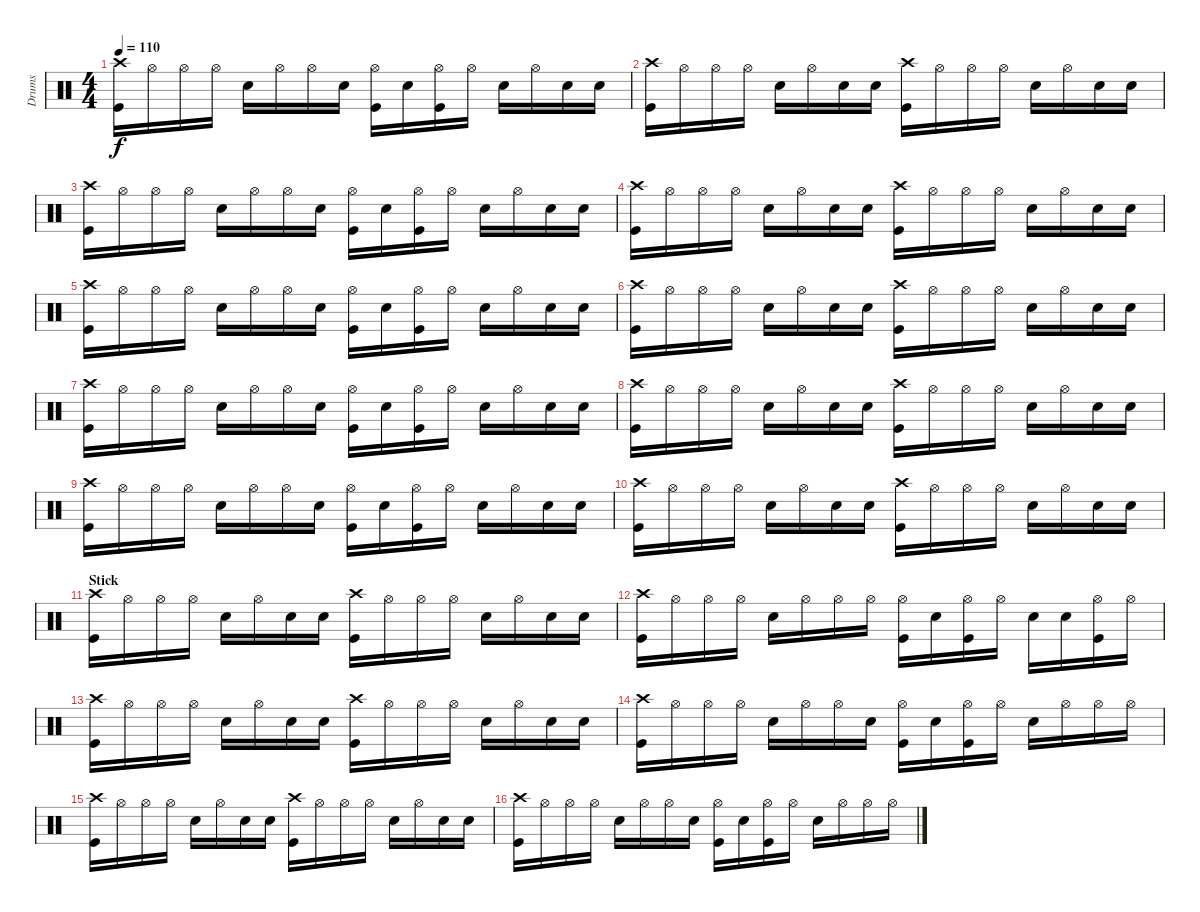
\track ("Drums" "Drums") {instrument percussion}
\staff {score}
\articulation defaults
\ts (4 4)
\tempo 110
\clef neutral
\ks c
("Crash high (hit)" "Kick (hit)").16{dy f} "Hi-Hat (open)".16 "Hi-Hat (open)".16 "Hi-Hat (open)".16 "Snare (hit) 2".16 "Hi-Hat (open)".16 "Hi-Hat (open)".16 "Snare (hit) 2".16 ("Hi-Hat (open)" "Kick (hit)").16 "Snare (hit) 2".16 ("Hi-Hat (open)" "Kick (hit)").16 "Hi-Hat (open)".16 "Snare (hit) 2".16 "Hi-Hat (open)".16 "Snare (hit) 2".16 "Snare (hit) 2".16 |
("Crash high (hit)" "Kick (hit)").16 "Hi-Hat (open)".16 "Hi-Hat (open)".16 "Hi-Hat (open)".16 "Snare (hit) 2".16 "Hi-Hat (open)".16 "Snare (hit) 2".16 "Snare (hit) 2".16 ("Crash high (hit)" "Kick (hit)").16 "Hi-Hat (open)".16 "Hi-Hat (open)".16 "Hi-Hat (open)".16 "Snare (hit) 2".16 "Hi-Hat (open)".16 "Snare (hit) 2".16 "Snare (hit) 2".16 |
("Crash high (hit)" "Kick (hit)").16 "Hi-Hat (open)".16 "Hi-Hat (open)".16 "Hi-Hat (open)".16 "Snare (hit) 2".16 "Hi-Hat (open)".16 "Hi-Hat (open)".16 "Snare (hit) 2".16 ("Hi-Hat (open)" "Kick (hit)").16 "Snare (hit) 2".16 ("Hi-Hat (open)" "Kick (hit)").16 "Hi-Hat (open)".16 "Snare (hit) 2".16 "Hi-Hat (open)".16 "Snare (hit) 2".16 "Snare (hit) 2".16 |
("Crash high (hit)" "Kick (hit)").16 "Hi-Hat (open)".16 "Hi-Hat (open)".16 "Hi-Hat (open)".16 "Snare (hit) 2".16 "Hi-Hat (open)".16 "Snare (hit) 2".16 "Snare (hit) 2".16 ("Crash high (hit)" "Kick (hit)").16 "Hi-Hat (open)".16 "Hi-Hat (open)".16 "Hi-Hat (open)".16 "Snare (hit) 2".16 "Hi-Hat (open)".16 "Snare (hit) 2".16 "Snare (hit) 2".16 |
("Crash high (hit)" "Kick (hit)").16 "Hi-Hat (open)".16 "Hi-Hat (open)".16 "Hi-Hat (open)".16 "Snare (hit) 2".16 "Hi-Hat (open)".16 "Hi-Hat (open)".16 "Snare (hit) 2".16 ("Hi-Hat (open)" "Kick (hit)").16 "Snare (hit) 2".16 ("Hi-Hat (open)" "Kick (hit)").16 "Hi-Hat (open)".16 "Snare (hit) 2".16 "Hi-Hat (open)".16 "Snare (hit) 2".16 "Snare (hit) 2".16 |
("Crash high (hit)" "Kick (hit)").16 "Hi-Hat (open)".16 "Hi-Hat (open)".16 "Hi-Hat (open)".16 "Snare (hit) 2".16 "Hi-Hat (open)".16 "Snare (hit) 2".16 "Snare (hit) 2".16 ("Crash high (hit)" "Kick (hit)").16 "Hi-Hat (open)".16 "Hi-Hat (open)".16 "Hi-Hat (open)".16 "Snare (hit) 2".16 "Hi-Hat (open)".16 "Snare (hit) 2".16 "Snare (hit) 2".16 |
("Crash high (hit)" "Kick (hit)").16 "Hi-Hat (open)".16 "Hi-Hat (open)".16 "Hi-Hat (open)".16 "Snare (hit) 2".16 "Hi-Hat (open)".16 "Hi-Hat (open)".16 "Snare (hit) 2".16 ("Hi-Hat (open)" "Kick (hit)").16 "Snare (hit) 2".16 ("Hi-Hat (open)" "Kick (hit)").16 "Hi-Hat (open)".16 "Snare (hit) 2".16 "Hi-Hat (open)".16 "Snare (hit) 2".16 "Snare (hit) 2".16 |
("Crash high (hit)" "Kick (hit)").16 "Hi-Hat (open)".16 "Hi-Hat (open)".16 "Hi-Hat (open)".16 "Snare (hit) 2".16 "Hi-Hat (open)".16 "Snare (hit) 2".16 "Snare (hit) 2".16 ("Crash high (hit)" "Kick (hit)").16 "Hi-Hat (open)".16 "Hi-Hat (open)".16 "Hi-Hat (open)".16 "Snare (hit) 2".16 "Hi-Hat (open)".16 "Snare (hit) 2".16 "Snare (hit) 2".16 |
("Crash high (hit)" "Kick (hit)").16 "Hi-Hat (open)".16 "Hi-Hat (open)".16 "Hi-Hat (open)".16 "Snare (hit) 2".16 "Hi-Hat (open)".16 "Hi-Hat (open)".16 "Snare (hit) 2".16 ("Hi-Hat (open)" "Kick (hit)").16 "Snare (hit) 2".16 ("Hi-Hat (open)" "Kick (hit)").16 "Hi-Hat (open)".16 "Snare (hit) 2".16 "Hi-Hat (open)".16 "Snare (hit) 2".16 "Snare (hit) 2".16 |
("Crash high (hit)" "Kick (hit)").16 "Hi-Hat (open)".16 "Hi-Hat (open)".16 "Hi-Hat (open)".16 "Snare (hit) 2".16 "Hi-Hat (open)".16 "Snare (hit) 2".16 "Snare (hit) 2".16 ("Crash high (hit)" "Kick (hit)").16 "Hi-Hat (open)".16 "Hi-Hat (open)".16 "Hi-Hat (open)".16 "Snare (hit) 2".16 "Hi-Hat (open)".16 "Snare (hit) 2".16 "Snare (hit) 2".16 |
\section ("" "Stick")
("Crash high (hit)" "Kick (hit)").16 "Hi-Hat (open)".16 "Hi-Hat (open)".16 "Hi-Hat (open)".16 "Snare (hit) 2".16 "Hi-Hat (open)".16 "Snare (hit) 2".16 "Snare (hit) 2".16 ("Crash high (hit)" "Kick (hit)").16 "Hi-Hat (open)".16 "Hi-Hat (open)".16 "Hi-Hat (open)".16 "Snare (hit) 2".16 "Hi-Hat (open)".16 "Snare (hit) 2".16 "Snare (hit) 2".16 |
("Crash high (hit)" "Kick (hit)").16 "Hi-Hat (open)".16 "Hi-Hat (open)".16 "Hi-Hat (open)".16 "Snare (hit) 2".16 "Hi-Hat (open)".16 "Hi-Hat (open)".16 "Hi-Hat (open)".16 ("Hi-Hat (open)" "Kick (hit)").16 "Snare (hit) 2".16 ("Hi-Hat (open)" "Kick (hit)").16 "Hi-Hat (open)".16 "Snare (hit) 2".16 "Snare (hit) 2".16 ("Hi-Hat (open)" "Kick (hit)").16 "Hi-Hat (open)".16 |
("Crash high (hit)" "Kick (hit)").16 "Hi-Hat (open)".16 "Hi-Hat (open)".16 "Hi-Hat (open)".16 "Snare (hit) 2".16 "Hi-Hat (open)".16 "Snare (hit) 2".16 "Snare (hit) 2".16 ("Crash high (hit)" "Kick (hit)").16 "Hi-Hat (open)".16 "Hi-Hat (open)".16 "Hi-Hat (open)".16 "Snare (hit) 2".16 "Hi-Hat (open)".16 "Snare (hit) 2".16 "Snare (hit) 2".16 |
("Crash high (hit)" "Kick (hit)").16 "Hi-Hat (open)".16 "Hi-Hat (open)".16 "Hi-Hat (open)".16 "Snare (hit) 2".16 "Hi-Hat (open)".16 "Hi-Hat (open)".16 "Snare (hit) 2".16 ("Hi-Hat (open)" "Kick (hit)").16 "Snare (hit) 2".16 ("Hi-Hat (open)" "Kick (hit)").16 "Hi-Hat (open)".16 "Snare (hit) 2".16 "Hi-Hat (open)".16 "Hi-Hat (open)".16 "Hi-Hat (open)".16 |
("Crash high (hit)" "Kick (hit)").16 "Hi-Hat (open)".16 "Hi-Hat (open)".16 "Hi-Hat (open)".16 "Snare (hit) 2".16 "Hi-Hat (open)".16 "Snare (hit) 2".16 "Snare (hit) 2".16 ("Crash high (hit)" "Kick (hit)").16 "Hi-Hat (open)".16 "Hi-Hat (open)".16 "Hi-Hat (open)".16 "Snare (hit) 2".16 "Hi-Hat (open)".16 "Snare (hit) 2".16 "Snare (hit) 2".16 |
("Crash high (hit)" "Kick (hit)").16 "Hi-Hat (open)".16 "Hi-Hat (open)".16 "Hi-Hat (open)".16 "Snare (hit) 2".16 "Hi-Hat (open)".16 "Hi-Hat (open)".16 "Snare (hit) 2".16 ("Hi-Hat (open)" "Kick (hit)").16 "Snare (hit) 2".16 ("Hi-Hat (open)" "Kick (hit)").16 "Hi-Hat (open)".16 "Snare (hit) 2".16 "Hi-Hat (open)".16 "Hi-Hat (open)".16 "Hi-Hat (open)".16
